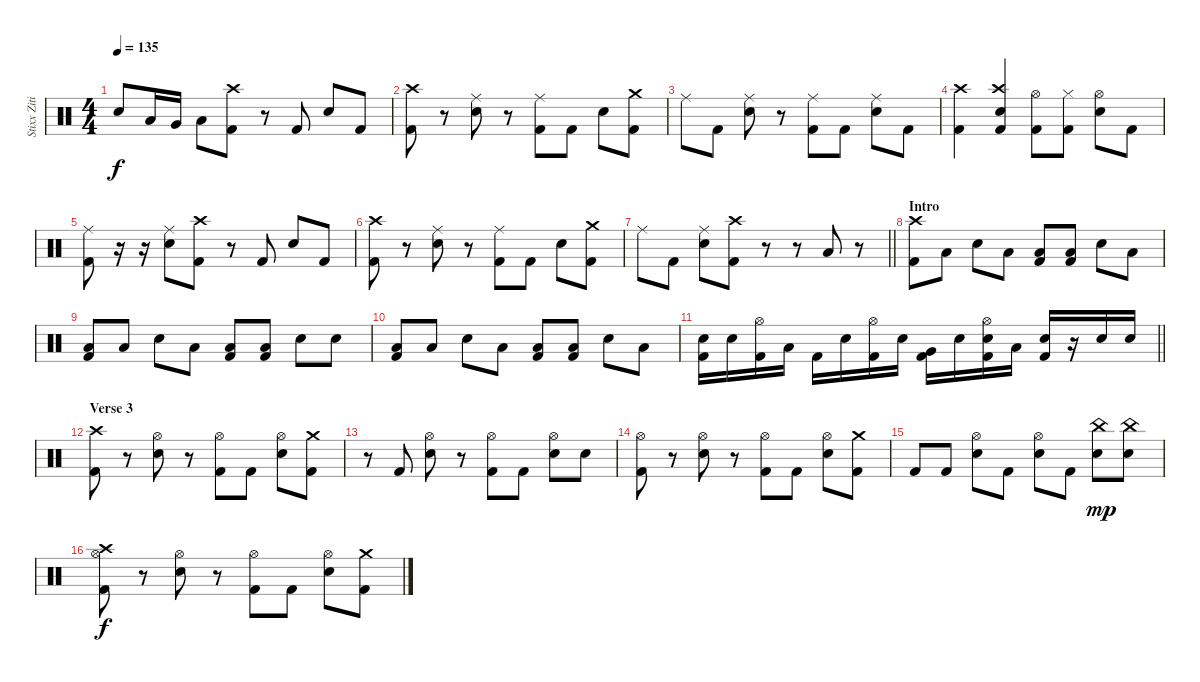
\track ("Stixx Zitinya Drums" "Stixx Ziti") {instrument percussion}
\staff {score}
\articulation defaults
\ts (4 4)
\tempo 135
\clef neutral
\ks c "Snare (hit) 2".8{dy f} "Low Tom (hit)".16 "Very Low Tom (hit)".16 "Low Floor Tom (hit)".8
("Crash high (hit)" "Kick (hit) 2").8 r.8 "Kick (hit) 2".8 "Snare (hit) 2".8 "Kick (hit) 2".8 |
("Crash high (hit)" "Kick (hit) 2").8 r.8 ("Ride (middle)" "Snare (hit) 2").8 r.8 ("Ride (middle)" "Kick (hit) 2").8 "Kick (hit) 2".8 "Snare (hit) 2".8 ("Crash medium (hit)" "Kick (hit) 2").8 |
"Ride (middle)".8 "Kick (hit) 2".8 ("Ride (middle)" "Snare (hit) 2").8 r.8 ("Ride (middle)" "Kick (hit) 2").8 "Kick (hit) 2".8 ("Ride (middle)" "Snare (hit) 2").8 "Kick (hit) 2".8 |
("Crash high (hit)" "Kick (hit) 2").4 ("Crash high (hit)" "Snare (hit) 2" "Kick (hit) 2").4 ("Hi-Hat (open)" "Kick (hit) 2").8 ("Hi-Hat (closed)" "Kick (hit) 2").8 ("Hi-Hat (open)" "Snare (hit) 2").8 "Kick (hit) 2".8 |
("Ride (middle)" "Kick (hit) 2").8 r.16 r.16 ("Ride (middle)" "Snare (hit) 2").8 ("Crash high (hit)" "Kick (hit) 2").8 r.8 "Kick (hit) 2".8 "Snare (hit) 2".8 "Kick (hit) 2".8 |
("Crash high (hit)" "Kick (hit) 2").8 r.8 ("Ride (middle)" "Snare (hit) 2").8 r.8 ("Ride (middle)" "Kick (hit) 2").8 "Kick (hit) 2".8 "Snare (hit) 2".8 ("Crash medium (hit)" "Kick (hit) 2").8 |
\barLineRight lightlight "Ride (middle)".8 "Kick (hit) 2".8
("Ride (middle)" "Snare (hit) 2").8 ("Crash high (hit)" "Kick (hit) 2").8 r.8 r.8 "Low Floor Tom (hit)".8 r.8 |
\section ("" "Intro")
("Crash high (hit)" "Kick (hit) 2").8 "Low Floor Tom (hit)".8 "Snare (hit) 2".8 "Low Floor Tom (hit)".8 ("Low Floor Tom (hit)" "Kick (hit) 2").8 ("Low Floor Tom (hit)" "Kick (hit) 2").8 "Snare (hit) 2".8 "Low Floor Tom (hit)".8 |
("Low Floor Tom (hit)" "Kick (hit) 2").8 "Low Floor Tom (hit)".8 "Snare (hit) 2".8 "Low Floor Tom (hit)".8 ("Low Floor Tom (hit)" "Kick (hit) 2").8 ("Low Floor Tom (hit)" "Kick (hit) 2").8 "Snare (hit) 2".8 "Snare (hit) 2".8 |
("Low Floor Tom (hit)" "Kick (hit) 2").8 "Low Floor Tom (hit)".8 "Snare (hit) 2".8 "Low Floor Tom (hit)".8 ("Low Floor Tom (hit)" "Kick (hit) 2").8 ("Low Floor Tom (hit)" "Kick (hit) 2").8 "Snare (hit) 2".8 "Low Floor Tom (hit)".8 |
\barLineRight lightlight
("Snare (hit) 2" "Kick (hit) 2").16 "Snare (hit) 2".16 ("Hi-Hat (open)" "Kick (hit) 2").16 "Low Tom (hit)".16 "Kick (hit) 2".16 "Snare (hit) 2".16 ("Hi-Hat (open)" "Kick (hit) 2").16 "Snare (hit) 2".16 ("Very Low Tom (hit)" "Kick (hit) 2").16 "Snare (hit) 2".16 ("Hi-Hat (open)" "Snare (hit) 2" "Kick (hit) 2").16 "Low Floor Tom (hit)".16 ("Snare (hit) 2" "Kick (hit) 2").16 r.16 "Snare (hit) 2".16 "Snare (hit) 2".16 |
\section ("" "Verse 3")
("Crash high (hit)" "Kick (hit) 2").8 r.8 ("Hi-Hat (open)" "Snare (hit) 2").8 r.8 ("Hi-Hat (open)" "Kick (hit) 2").8 "Kick (hit) 2".8 ("Hi-Hat (open)" "Snare (hit) 2").8 ("Crash medium (hit)" "Kick (hit) 2").8 |
r.8 "Kick (hit) 2".8 ("Hi-Hat (open)" "Snare (hit) 2").8 r.8 ("Hi-Hat (open)" "Kick (hit) 2").8 "Kick (hit) 2".8 ("Hi-Hat (open)" "Snare (hit) 2").8 "Snare (hit) 2".8 |
("Hi-Hat (open)" "Kick (hit) 2").8 r.8 ("Hi-Hat (open)" "Snare (hit) 2").8 r.8 ("Hi-Hat (open)" "Kick (hit) 2").8 "Kick (hit) 2".8 ("Hi-Hat (open)" "Snare (hit) 2").8 ("Crash medium (hit)" "Kick (hit) 2").8 |
"Kick (hit) 2".8 "Kick (hit) 2".8 ("Hi-Hat (open)" "Snare (hit) 2").8 "Kick (hit) 2".8 ("Hi-Hat (open)" "Snare (hit) 2").8 "Kick (hit) 2".8 ("China (hit)" "Snare (hit) 2").8{dy mp} ("China (hit)" "Snare (hit) 2").8 |
("Crash high (hit)" "Hi-Hat (open)" "Kick (hit) 2").8{dy f} r.8 ("Hi-Hat (open)" "Snare (hit) 2").8 r.8 ("Hi-Hat (open)" "Kick (hit) 2").8 "Kick (hit) 2".8 ("Hi-Hat (open)" "Snare (hit) 2").8 ("Crash medium (hit)" "Kick (hit) 2").8
